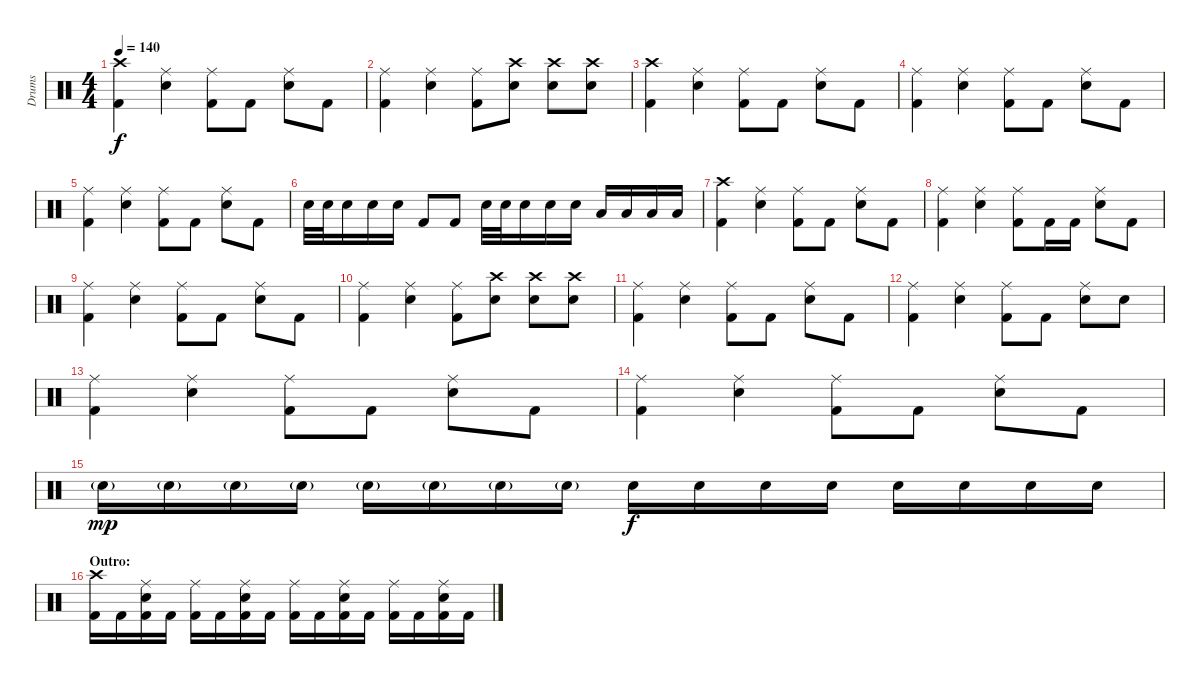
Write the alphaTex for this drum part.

\track ("Drums" "Drums") {instrument percussion}
\staff {score}
\articulation defaults
\ts (4 4)
\tempo 140
\clef neutral
\ks c
("Crash high (hit)" "Kick (hit) 2").4{dy f} ("Ride (middle)" "Electric Snare (hit)").4 ("Ride (middle)" "Kick (hit) 2").8 "Kick (hit) 2".8 ("Ride (middle)" "Electric Snare (hit)").8 "Kick (hit) 2".8 |
("Ride (middle)" "Kick (hit) 2").4 ("Ride (middle)" "Electric Snare (hit)").4 ("Ride (middle)" "Kick (hit) 2").8 ("Crash high (hit)" "Electric Snare (hit)").8 ("Crash high (hit)" "Electric Snare (hit)").8 ("Crash high (hit)" "Electric Snare (hit)").8 |
("Crash high (hit)" "Kick (hit) 2").4 ("Ride (middle)" "Electric Snare (hit)").4 ("Ride (middle)" "Kick (hit) 2").8 "Kick (hit) 2".8 ("Ride (middle)" "Electric Snare (hit)").8 "Kick (hit) 2".8 |
("Ride (middle)" "Kick (hit) 2").4 ("Ride (middle)" "Electric Snare (hit)").4 ("Ride (middle)" "Kick (hit) 2").8 "Kick (hit) 2".8 ("Ride (middle)" "Electric Snare (hit)").8 "Kick (hit) 2".8 |
("Ride (middle)" "Kick (hit) 2").4 ("Ride (middle)" "Electric Snare (hit)").4 ("Ride (middle)" "Kick (hit) 2").8 "Kick (hit) 2".8 ("Ride (middle)" "Electric Snare (hit)").8 "Kick (hit) 2".8 |
"Electric Snare (hit)".32 "Electric Snare (hit)".32 "Electric Snare (hit)".16 "Electric Snare (hit)".16 "Electric Snare (hit)".16 "Kick (hit) 2".8 "Kick (hit) 2".8 "Electric Snare (hit)".32 "Electric Snare (hit)".32 "Electric Snare (hit)".16 "Electric Snare (hit)".16 "Electric Snare (hit)".16 "Low Tom (hit)".16 "Low Tom (hit)".16 "Low Tom (hit)".16 "Low Tom (hit)".16 |
("Crash high (hit)" "Kick (hit) 2").4 ("Ride (middle)" "Electric Snare (hit)").4 ("Ride (middle)" "Kick (hit) 2").8 "Kick (hit) 2".8 ("Ride (middle)" "Electric Snare (hit)").8 "Kick (hit) 2".8 |
("Ride (middle)" "Kick (hit) 2").4 ("Ride (middle)" "Electric Snare (hit)").4 ("Ride (middle)" "Kick (hit) 2").8 "Kick (hit) 2".16 "Kick (hit) 2".16 ("Ride (middle)" "Electric Snare (hit)").8 "Kick (hit) 2".8 |
("Ride (middle)" "Kick (hit) 2").4 ("Ride (middle)" "Electric Snare (hit)").4 ("Ride (middle)" "Kick (hit) 2").8 "Kick (hit) 2".8 ("Ride (middle)" "Electric Snare (hit)").8 "Kick (hit) 2".8 |
("Ride (middle)" "Kick (hit) 2").4 ("Ride (middle)" "Electric Snare (hit)").4 ("Ride (middle)" "Kick (hit) 2").8 ("Crash high (hit)" "Electric Snare (hit)").8 ("Crash high (hit)" "Electric Snare (hit)").8 ("Crash high (hit)" "Electric Snare (hit)").8 |
("Ride (middle)" "Kick (hit) 2").4 ("Ride (middle)" "Electric Snare (hit)").4 ("Ride (middle)" "Kick (hit) 2").8 "Kick (hit) 2".8 ("Ride (middle)" "Electric Snare (hit)").8 "Kick (hit) 2".8 |
("Ride (middle)" "Kick (hit) 2").4 ("Ride (middle)" "Electric Snare (hit)").4 ("Ride (middle)" "Kick (hit) 2").8 "Kick (hit) 2".8 ("Ride (middle)" "Electric Snare (hit)").8 "Electric Snare (hit)".8 |
("Ride (middle)" "Kick (hit) 2").4 ("Ride (middle)" "Electric Snare (hit)").4 ("Ride (middle)" "Kick (hit) 2").8 "Kick (hit) 2".8 ("Ride (middle)" "Electric Snare (hit)").8 "Kick (hit) 2".8 |
("Ride (middle)" "Kick (hit) 2").4 ("Ride (middle)" "Electric Snare (hit)").4 ("Ride (middle)" "Kick (hit) 2").8 "Kick (hit) 2".8 ("Ride (middle)" "Electric Snare (hit)").8 "Kick (hit) 2".8 |
"Electric Snare (hit)"{g}.16{dy mp} "Electric Snare (hit)"{g}.16 "Electric Snare (hit)"{g}.16 "Electric Snare (hit)"{g}.16 "Electric Snare (hit)"{g}.16 "Electric Snare (hit)"{g}.16 "Electric Snare (hit)"{g}.16 "Electric Snare (hit)"{g}.16 "Electric Snare (hit)".16{dy f} "Electric Snare (hit)".16 "Electric Snare (hit)".16 "Electric Snare (hit)".16 "Electric Snare (hit)".16 "Electric Snare (hit)".16 "Electric Snare (hit)".16 "Electric Snare (hit)".16 |
\section ("" "Outro:")
("Crash high (hit)" "Kick (hit) 2").16 "Kick (hit) 2".16 ("Ride (middle)" "Electric Snare (hit)" "Kick (hit) 2").16 "Kick (hit) 2".16 ("Ride (middle)" "Kick (hit) 2").16 "Kick (hit) 2".16 ("Ride (middle)" "Electric Snare (hit)" "Kick (hit) 2").16 "Kick (hit) 2".16 ("Ride (middle)" "Kick (hit) 2").16 "Kick (hit) 2".16 ("Ride (middle)" "Electric Snare (hit)" "Kick (hit) 2").16 "Kick (hit) 2".16 ("Ride (middle)" "Kick (hit) 2").16 "Kick (hit) 2".16 ("Ride (middle)" "Electric Snare (hit)" "Kick (hit) 2").16 "Kick (hit) 2".16
